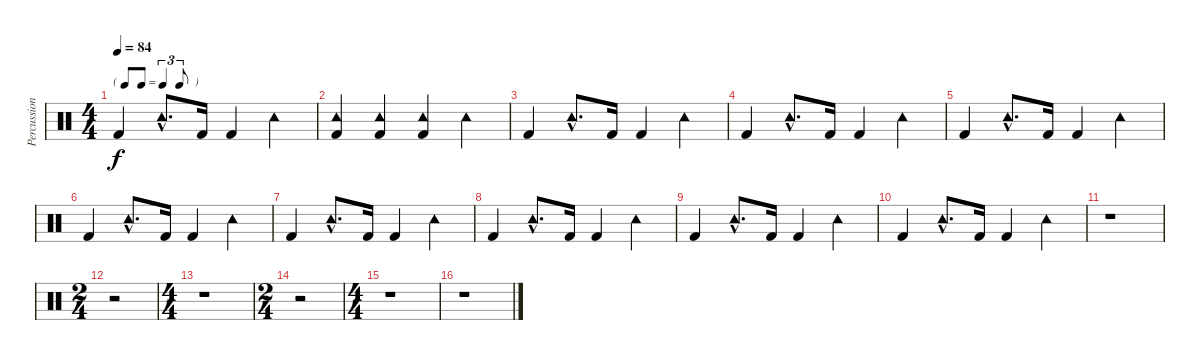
\track ("Percussion" "Percussion") {instrument percussion}
\staff {score}
\articulation defaults
\ts (4 4)
\tf triplet8th
\tempo 84
\clef neutral
\ks c "Kick (hit) 2".4{dy f} "Tambourine (hit)"{hac}.8{d} "Kick (hit) 2".16 "Kick (hit) 2".4 "Tambourine (hit)".4
|
("Kick (hit) 2" "Tambourine (hit)").4 ("Kick (hit) 2" "Tambourine (hit)").4 ("Kick (hit) 2" "Tambourine (hit)").4 "Tambourine (hit)".4 |
"Kick (hit) 2".4 "Tambourine (hit)"{hac}.8{d} "Kick (hit) 2".16 "Kick (hit) 2".4 "Tambourine (hit)".4 |
"Kick (hit) 2".4 "Tambourine (hit)"{hac}.8{d} "Kick (hit) 2".16 "Kick (hit) 2".4 "Tambourine (hit)".4 |
"Kick (hit) 2".4 "Tambourine (hit)"{hac}.8{d} "Kick (hit) 2".16 "Kick (hit) 2".4 "Tambourine (hit)".4 |
"Kick (hit) 2".4 "Tambourine (hit)"{hac}.8{d} "Kick (hit) 2".16 "Kick (hit) 2".4 "Tambourine (hit)".4 |
"Kick (hit) 2".4 "Tambourine (hit)"{hac}.8{d} "Kick (hit) 2".16 "Kick (hit) 2".4 "Tambourine (hit)".4 |
"Kick (hit) 2".4 "Tambourine (hit)"{hac}.8{d} "Kick (hit) 2".16 "Kick (hit) 2".4 "Tambourine (hit)".4 |
"Kick (hit) 2".4 "Tambourine (hit)"{hac}.8{d} "Kick (hit) 2".16 "Kick (hit) 2".4 "Tambourine (hit)".4 |
"Kick (hit) 2".4 "Tambourine (hit)"{hac}.8{d} "Kick (hit) 2".16 "Kick (hit) 2".4 "Tambourine (hit)".4 |
r.1 |
\ts (2 4)
r.2 |
\ts (4 4)
r.1 |
\ts (2 4)
r.2 |
\ts (4 4)
r.1 |
r.1
